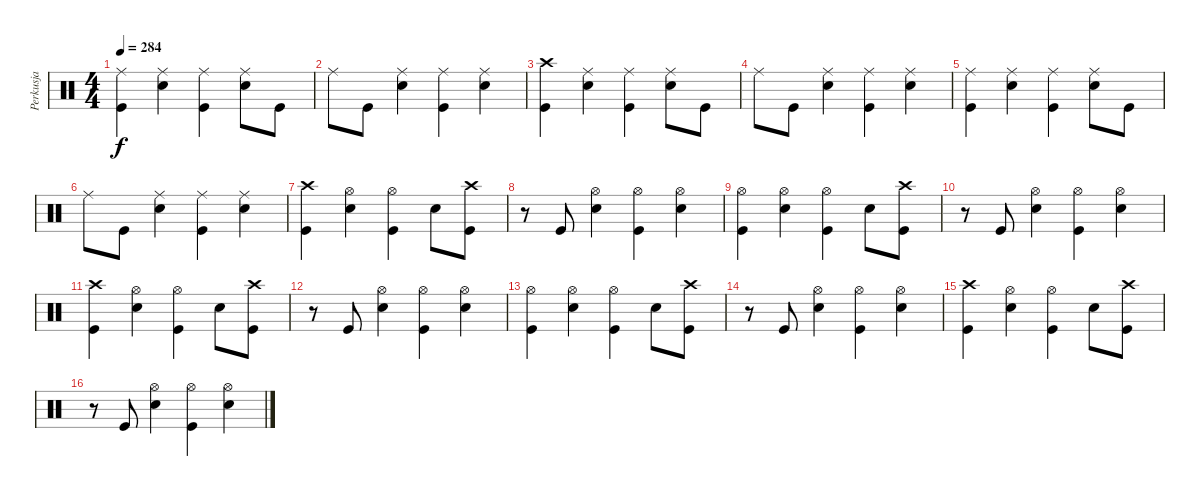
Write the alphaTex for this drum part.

\track ("Perkusja" "Perkusja") {instrument percussion}
\staff {score}
\articulation defaults
\ts (4 4)
\tempo 284
\clef neutral
\ks c
("Ride (middle)" "Kick (hit)").4{dy f} ("Ride (middle)" "Snare (hit) 2").4 ("Ride (middle)" "Kick (hit)").4 ("Ride (middle)" "Snare (hit) 2").8 "Kick (hit)".8 |
"Ride (middle)".8 "Kick (hit)".8 ("Ride (middle)" "Snare (hit) 2").4 ("Ride (middle)" "Kick (hit)").4 ("Ride (middle)" "Snare (hit) 2").4 |
("Kick (hit)" "Crash high (hit)").4 ("Ride (middle)" "Snare (hit) 2").4 ("Ride (middle)" "Kick (hit)").4 ("Ride (middle)" "Snare (hit) 2").8 "Kick (hit)".8 |
"Ride (middle)".8 "Kick (hit)".8 ("Ride (middle)" "Snare (hit) 2").4 ("Ride (middle)" "Kick (hit)").4 ("Ride (middle)" "Snare (hit) 2").4 |
("Ride (middle)" "Kick (hit)").4 ("Ride (middle)" "Snare (hit) 2").4 ("Ride (middle)" "Kick (hit)").4 ("Ride (middle)" "Snare (hit) 2").8 "Kick (hit)".8 |
"Ride (middle)".8 "Kick (hit)".8 ("Ride (middle)" "Snare (hit) 2").4 ("Ride (middle)" "Kick (hit)").4 ("Ride (middle)" "Snare (hit) 2").4 |
("Kick (hit)" "Crash high (hit)").4 ("Hi-Hat (open)" "Snare (hit) 2").4 ("Hi-Hat (open)" "Kick (hit)").4 "Snare (hit) 2".8 ("Kick (hit)" "Crash high (hit)").8 |
r.8 "Kick (hit)".8 ("Hi-Hat (open)" "Snare (hit) 2").4 ("Hi-Hat (open)" "Kick (hit)").4 ("Hi-Hat (open)" "Snare (hit) 2").4 |
("Hi-Hat (open)" "Kick (hit)").4 ("Hi-Hat (open)" "Snare (hit) 2").4 ("Hi-Hat (open)" "Kick (hit)").4 "Snare (hit) 2".8 ("Kick (hit)" "Crash high (hit)").8 |
r.8 "Kick (hit)".8 ("Hi-Hat (open)" "Snare (hit) 2").4 ("Hi-Hat (open)" "Kick (hit)").4 ("Hi-Hat (open)" "Snare (hit) 2").4 |
("Kick (hit)" "Crash high (hit)").4 ("Hi-Hat (open)" "Snare (hit) 2").4 ("Hi-Hat (open)" "Kick (hit)").4 "Snare (hit) 2".8 ("Kick (hit)" "Crash high (hit)").8 |
r.8 "Kick (hit)".8 ("Hi-Hat (open)" "Snare (hit) 2").4 ("Hi-Hat (open)" "Kick (hit)").4 ("Hi-Hat (open)" "Snare (hit) 2").4 |
("Hi-Hat (open)" "Kick (hit)").4 ("Hi-Hat (open)" "Snare (hit) 2").4 ("Hi-Hat (open)" "Kick (hit)").4 "Snare (hit) 2".8 ("Kick (hit)" "Crash high (hit)").8 |
r.8 "Kick (hit)".8 ("Hi-Hat (open)" "Snare (hit) 2").4 ("Hi-Hat (open)" "Kick (hit)").4 ("Hi-Hat (open)" "Snare (hit) 2").4 |
("Kick (hit)" "Crash high (hit)").4 ("Hi-Hat (open)" "Snare (hit) 2").4 ("Hi-Hat (open)" "Kick (hit)").4 "Snare (hit) 2".8 ("Kick (hit)" "Crash high (hit)").8 |
r.8 "Kick (hit)".8 ("Hi-Hat (open)" "Snare (hit) 2").4 ("Hi-Hat (open)" "Kick (hit)").4 ("Hi-Hat (open)" "Snare (hit) 2").4
